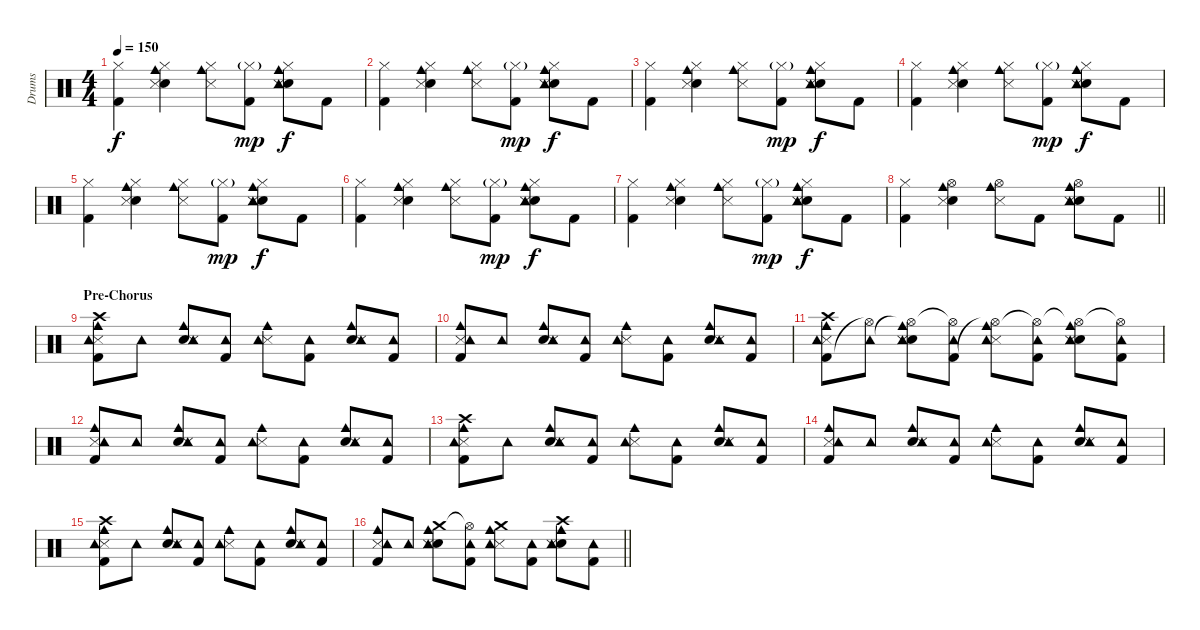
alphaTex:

\track ("Drums" "Drums") {instrument percussion}
\staff {score}
\articulation defaults
\ts (4 4)
\tempo 150
\clef neutral
\ks c
("Kick (hit) 2" "Hi-Hat (closed)").4{dy f} ("Electric Snare (hit)" "Hi-Hat (closed)" "Cowbell medium (hit)" "Snare (side stick) 3").4 ("Hi-Hat (closed)" "Cowbell medium (hit)" "Snare (side stick) 3").8 ("Kick (hit) 2" "Hi-Hat (closed)"{g}).8{dy mp} ("Electric Snare (hit)" "Hi-Hat (closed)" "Cowbell medium (hit)" "Snare (side stick) 3" "Tambourine (hit)").8{dy f} "Kick (hit) 2".8 |
("Kick (hit) 2" "Hi-Hat (closed)").4 ("Electric Snare (hit)" "Hi-Hat (closed)" "Cowbell medium (hit)" "Snare (side stick) 3").4 ("Hi-Hat (closed)" "Cowbell medium (hit)" "Snare (side stick) 3").8 ("Kick (hit) 2" "Hi-Hat (closed)"{g}).8{dy mp} ("Electric Snare (hit)" "Hi-Hat (closed)" "Cowbell medium (hit)" "Snare (side stick) 3" "Tambourine (hit)").8{dy f} "Kick (hit) 2".8 |
("Kick (hit) 2" "Hi-Hat (closed)").4 ("Electric Snare (hit)" "Hi-Hat (closed)" "Cowbell medium (hit)" "Snare (side stick) 3").4 ("Hi-Hat (closed)" "Cowbell medium (hit)" "Snare (side stick) 3").8 ("Kick (hit) 2" "Hi-Hat (closed)"{g}).8{dy mp} ("Electric Snare (hit)" "Hi-Hat (closed)" "Cowbell medium (hit)" "Snare (side stick) 3" "Tambourine (hit)").8{dy f} "Kick (hit) 2".8 |
("Kick (hit) 2" "Hi-Hat (closed)").4 ("Electric Snare (hit)" "Hi-Hat (closed)" "Cowbell medium (hit)" "Snare (side stick) 3").4 ("Hi-Hat (closed)" "Cowbell medium (hit)" "Snare (side stick) 3").8 ("Kick (hit) 2" "Hi-Hat (closed)"{g}).8{dy mp} ("Electric Snare (hit)" "Hi-Hat (closed)" "Cowbell medium (hit)" "Snare (side stick) 3" "Tambourine (hit)").8{dy f} "Kick (hit) 2".8 |
("Kick (hit) 2" "Hi-Hat (closed)").4 ("Electric Snare (hit)" "Hi-Hat (closed)" "Cowbell medium (hit)" "Snare (side stick) 3").4 ("Hi-Hat (closed)" "Cowbell medium (hit)" "Snare (side stick) 3").8 ("Kick (hit) 2" "Hi-Hat (closed)"{g}).8{dy mp} ("Electric Snare (hit)" "Hi-Hat (closed)" "Cowbell medium (hit)" "Snare (side stick) 3" "Tambourine (hit)").8{dy f} "Kick (hit) 2".8 |
("Kick (hit) 2" "Hi-Hat (closed)").4 ("Electric Snare (hit)" "Hi-Hat (closed)" "Cowbell medium (hit)" "Snare (side stick) 3").4 ("Hi-Hat (closed)" "Cowbell medium (hit)" "Snare (side stick) 3").8 ("Kick (hit) 2" "Hi-Hat (closed)"{g}).8{dy mp} ("Electric Snare (hit)" "Hi-Hat (closed)" "Cowbell medium (hit)" "Snare (side stick) 3" "Tambourine (hit)").8{dy f} "Kick (hit) 2".8 |
("Kick (hit) 2" "Hi-Hat (closed)").4 ("Electric Snare (hit)" "Hi-Hat (closed)" "Cowbell medium (hit)" "Snare (side stick) 3").4 ("Hi-Hat (closed)" "Cowbell medium (hit)" "Snare (side stick) 3").8 ("Kick (hit) 2" "Hi-Hat (closed)"{g}).8{dy mp} ("Electric Snare (hit)" "Hi-Hat (closed)" "Cowbell medium (hit)" "Snare (side stick) 3" "Tambourine (hit)").8{dy f} "Kick (hit) 2".8 |
\barLineRight lightlight
("Kick (hit) 2" "Hi-Hat (closed)").4 ("Electric Snare (hit)" "Hi-Hat (open)" "Cowbell medium (hit)" "Snare (side stick) 3").4 ("Hi-Hat (open)" "Cowbell medium (hit)" "Snare (side stick) 3").8 "Kick (hit) 2".8 ("Electric Snare (hit)" "Hi-Hat (open)" "Cowbell medium (hit)" "Snare (side stick) 3" "Tambourine (hit)").8 "Kick (hit) 2".8 |
\section ("" "Pre-Chorus")
("Kick (hit) 2" "Crash high (hit)" "Cowbell medium (hit)" "Snare (side stick) 3" "Tambourine (hit)").8 "Tambourine (hit)".8 ("Electric Snare (hit)" "Cowbell medium (hit)" "Snare (side stick) 3" "Tambourine (hit)").8 ("Kick (hit) 2" "Tambourine (hit)").8 ("Cowbell medium (hit)" "Snare (side stick) 3" "Tambourine (hit)").8 ("Kick (hit) 2" "Tambourine (hit)").8 ("Electric Snare (hit)" "Cowbell medium (hit)" "Snare (side stick) 3" "Tambourine (hit)").8 ("Kick (hit) 2" "Tambourine (hit)").8 |
("Kick (hit) 2" "Cowbell medium (hit)" "Snare (side stick) 3" "Tambourine (hit)").8 "Tambourine (hit)".8 ("Electric Snare (hit)" "Cowbell medium (hit)" "Snare (side stick) 3" "Tambourine (hit)").8 ("Kick (hit) 2" "Tambourine (hit)").8 ("Cowbell medium (hit)" "Snare (side stick) 3" "Tambourine (hit)").8 ("Kick (hit) 2" "Tambourine (hit)").8 ("Electric Snare (hit)" "Cowbell medium (hit)" "Snare (side stick) 3" "Tambourine (hit)").8 ("Kick (hit) 2" "Tambourine (hit)").8 |
("Kick (hit) 2" "Crash high (hit)" "Cowbell medium (hit)" "Snare (side stick) 3" "Tambourine (hit)").8 ("Hi-Hat (open)"{t} "Tambourine (hit)").8 ("Electric Snare (hit)" "Hi-Hat (open)"{t} "Cowbell medium (hit)" "Snare (side stick) 3" "Tambourine (hit)").8 ("Kick (hit) 2" "Hi-Hat (open)"{t} "Tambourine (hit)").8 ("Hi-Hat (open)"{t} "Cowbell medium (hit)" "Snare (side stick) 3" "Tambourine (hit)").8 ("Kick (hit) 2" "Hi-Hat (open)"{t} "Tambourine (hit)").8 ("Electric Snare (hit)" "Hi-Hat (open)"{t} "Cowbell medium (hit)" "Snare (side stick) 3" "Tambourine (hit)").8 ("Kick (hit) 2" "Hi-Hat (open)"{t} "Tambourine (hit)").8 |
("Kick (hit) 2" "Cowbell medium (hit)" "Snare (side stick) 3" "Tambourine (hit)").8 "Tambourine (hit)".8 ("Electric Snare (hit)" "Cowbell medium (hit)" "Snare (side stick) 3" "Tambourine (hit)").8 ("Kick (hit) 2" "Tambourine (hit)").8 ("Cowbell medium (hit)" "Snare (side stick) 3" "Tambourine (hit)").8 ("Kick (hit) 2" "Tambourine (hit)").8 ("Electric Snare (hit)" "Cowbell medium (hit)" "Snare (side stick) 3" "Tambourine (hit)").8 ("Kick (hit) 2" "Tambourine (hit)").8 |
("Kick (hit) 2" "Crash high (hit)" "Cowbell medium (hit)" "Snare (side stick) 3" "Tambourine (hit)").8 "Tambourine (hit)".8 ("Electric Snare (hit)" "Cowbell medium (hit)" "Snare (side stick) 3" "Tambourine (hit)").8 ("Kick (hit) 2" "Tambourine (hit)").8 ("Cowbell medium (hit)" "Snare (side stick) 3" "Tambourine (hit)").8 ("Kick (hit) 2" "Tambourine (hit)").8 ("Electric Snare (hit)" "Cowbell medium (hit)" "Snare (side stick) 3" "Tambourine (hit)").8 ("Kick (hit) 2" "Tambourine (hit)").8 |
("Kick (hit) 2" "Cowbell medium (hit)" "Snare (side stick) 3" "Tambourine (hit)").8 "Tambourine (hit)".8 ("Electric Snare (hit)" "Cowbell medium (hit)" "Snare (side stick) 3" "Tambourine (hit)").8 ("Kick (hit) 2" "Tambourine (hit)").8 ("Cowbell medium (hit)" "Snare (side stick) 3" "Tambourine (hit)").8 ("Kick (hit) 2" "Tambourine (hit)").8 ("Electric Snare (hit)" "Cowbell medium (hit)" "Snare (side stick) 3" "Tambourine (hit)").8 ("Kick (hit) 2" "Tambourine (hit)").8 |
("Kick (hit) 2" "Crash high (hit)" "Cowbell medium (hit)" "Snare (side stick) 3" "Tambourine (hit)").8 "Tambourine (hit)".8 ("Electric Snare (hit)" "Cowbell medium (hit)" "Snare (side stick) 3" "Tambourine (hit)").8 ("Kick (hit) 2" "Tambourine (hit)").8 ("Cowbell medium (hit)" "Snare (side stick) 3" "Tambourine (hit)").8 ("Kick (hit) 2" "Tambourine (hit)").8 ("Electric Snare (hit)" "Cowbell medium (hit)" "Snare (side stick) 3" "Tambourine (hit)").8 ("Kick (hit) 2" "Tambourine (hit)").8 |
\barLineRight lightlight
("Kick (hit) 2" "Cowbell medium (hit)" "Snare (side stick) 3" "Tambourine (hit)").8 "Tambourine (hit)".8 ("Electric Snare (hit)" "Crash medium (hit)" "Cowbell medium (hit)" "Snare (side stick) 3" "Tambourine (hit)").8 ("Kick (hit) 2" "Hi-Hat (open)"{t} "Tambourine (hit)").8 ("Crash medium (hit)" "Cowbell medium (hit)" "Snare (side stick) 3" "Tambourine (hit)").8 ("Kick (hit) 2" "Tambourine (hit)").8 ("Electric Snare (hit)" "Crash high (hit)" "Cowbell medium (hit)" "Snare (side stick) 3" "Tambourine (hit)").8 ("Kick (hit) 2" "Tambourine (hit)").8
